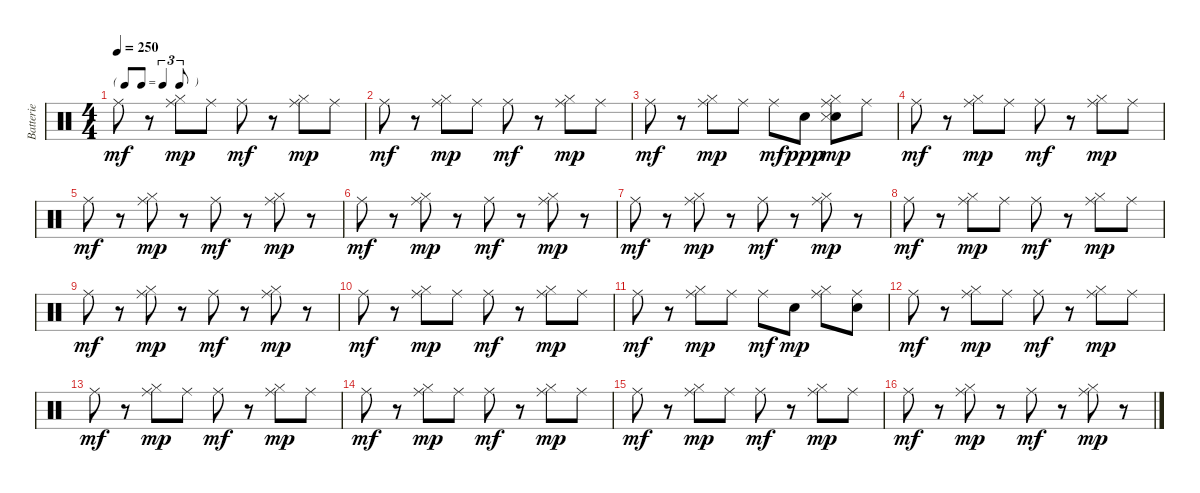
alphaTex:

\track ("Batterie" "Batterie") {instrument percussion}
\staff {score}
\articulation defaults
\ts (4 4)
\tf triplet8th
\tempo 250
\clef neutral
\ks c "Ride (middle)".8{dy mf}
r.8 ("Hi-Hat (closed)" "Ride (middle)").8{dy mp} "Ride (middle)".8 "Ride (middle)".8{dy mf} r.8 ("Hi-Hat (closed)" "Ride (middle)").8{dy mp} "Ride (middle)".8 |
"Ride (middle)".8{dy mf} r.8 ("Hi-Hat (closed)" "Ride (middle)").8{dy mp} "Ride (middle)".8 "Ride (middle)".8{dy mf} r.8 ("Hi-Hat (closed)" "Ride (middle)").8{dy mp} "Ride (middle)".8 |
"Ride (middle)".8{dy mf} r.8 ("Hi-Hat (closed)" "Ride (middle)").8{dy mp} "Ride (middle)".8 "Ride (middle)".8{dy mf} "Snare (hit) 2".8{dy ppp} ("Snare (hit) 2" "Hi-Hat (closed)" "Snare (side stick) 3" "Ride (middle)").8{dy mp} "Ride (middle)".8 |
"Ride (middle)".8{dy mf} r.8 ("Hi-Hat (closed)" "Ride (middle)").8{dy mp} "Ride (middle)".8 "Ride (middle)".8{dy mf} r.8 ("Hi-Hat (closed)" "Ride (middle)").8{dy mp} "Ride (middle)".8 |
"Ride (middle)".8{dy mf} r.8 ("Hi-Hat (closed)" "Ride (middle)").8{dy mp} r.8 "Ride (middle)".8{dy mf} r.8 ("Hi-Hat (closed)" "Ride (middle)").8{dy mp} r.8 |
"Ride (middle)".8{dy mf} r.8 ("Hi-Hat (closed)" "Ride (middle)").8{dy mp} r.8 "Ride (middle)".8{dy mf} r.8 ("Hi-Hat (closed)" "Ride (middle)").8{dy mp} r.8 |
"Ride (middle)".8{dy mf} r.8 ("Hi-Hat (closed)" "Ride (middle)").8{dy mp} r.8 "Ride (middle)".8{dy mf} r.8 ("Hi-Hat (closed)" "Ride (middle)").8{dy mp} r.8 |
"Ride (middle)".8{dy mf} r.8 ("Hi-Hat (closed)" "Ride (middle)").8{dy mp} "Ride (middle)".8 "Ride (middle)".8{dy mf} r.8 ("Hi-Hat (closed)" "Ride (middle)").8{dy mp} "Ride (middle)".8 |
"Ride (middle)".8{dy mf} r.8 ("Hi-Hat (closed)" "Ride (middle)").8{dy mp} r.8 "Ride (middle)".8{dy mf} r.8 ("Hi-Hat (closed)" "Ride (middle)").8{dy mp} r.8 |
"Ride (middle)".8{dy mf} r.8 ("Hi-Hat (closed)" "Ride (middle)").8{dy mp} "Ride (middle)".8 "Ride (middle)".8{dy mf} r.8 ("Hi-Hat (closed)" "Ride (middle)").8{dy mp} "Ride (middle)".8 |
"Ride (middle)".8{dy mf} r.8 ("Hi-Hat (closed)" "Ride (middle)").8{dy mp} "Ride (middle)".8 "Ride (middle)".8{dy mf} "Snare (hit) 2".8{dy mp} ("Hi-Hat (closed)" "Ride (middle)").8 ("Snare (hit) 2" "Ride (middle)").8 |
"Ride (middle)".8{dy mf} r.8 ("Hi-Hat (closed)" "Ride (middle)").8{dy mp} "Ride (middle)".8 "Ride (middle)".8{dy mf} r.8 ("Hi-Hat (closed)" "Ride (middle)").8{dy mp} "Ride (middle)".8 |
"Ride (middle)".8{dy mf} r.8 ("Hi-Hat (closed)" "Ride (middle)").8{dy mp} "Ride (middle)".8 "Ride (middle)".8{dy mf} r.8 ("Hi-Hat (closed)" "Ride (middle)").8{dy mp} "Ride (middle)".8 |
"Ride (middle)".8{dy mf} r.8 ("Hi-Hat (closed)" "Ride (middle)").8{dy mp} "Ride (middle)".8 "Ride (middle)".8{dy mf} r.8 ("Hi-Hat (closed)" "Ride (middle)").8{dy mp} "Ride (middle)".8 |
"Ride (middle)".8{dy mf} r.8 ("Hi-Hat (closed)" "Ride (middle)").8{dy mp} "Ride (middle)".8 "Ride (middle)".8{dy mf} r.8 ("Hi-Hat (closed)" "Ride (middle)").8{dy mp} "Ride (middle)".8 |
"Ride (middle)".8{dy mf} r.8 ("Hi-Hat (closed)" "Ride (middle)").8{dy mp} r.8 "Ride (middle)".8{dy mf} r.8 ("Hi-Hat (closed)" "Ride (middle)").8{dy mp} r.8
